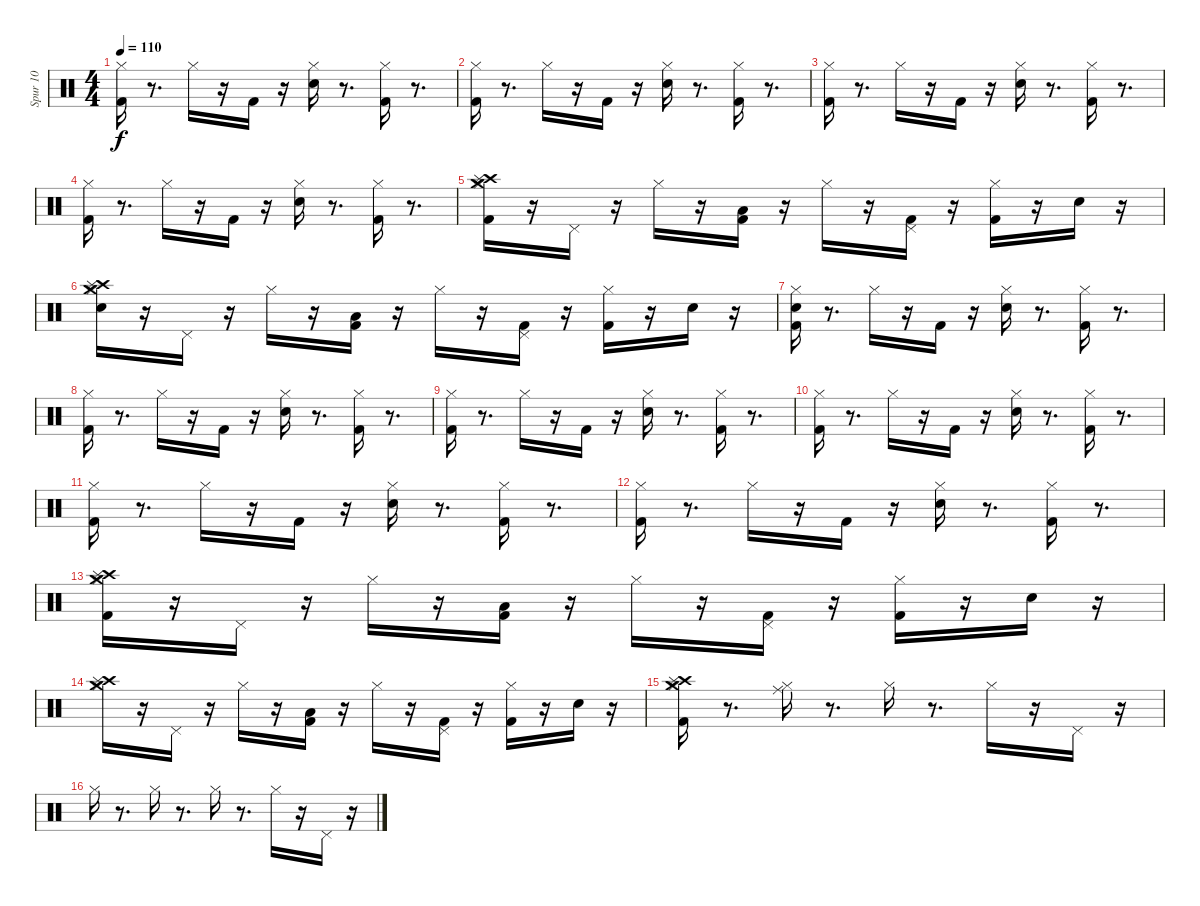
\track ("Spur 10" "Spur 10") {instrument percussion}
\staff {score}
\articulation defaults
\ts (4 4)
\tempo 110
\clef neutral
\ks c
("Hi-Hat (closed)" "Kick (hit) 2").16{dy f} r.8{d} "Hi-Hat (closed)".16 r.16 "Kick (hit) 2".16 r.16 ("Hi-Hat (closed)" "Snare (hit) 2").16 r.8{d} ("Hi-Hat (closed)" "Kick (hit) 2").16 r.8{d} |
("Hi-Hat (closed)" "Kick (hit) 2").16 r.8{d} "Hi-Hat (closed)".16 r.16 "Kick (hit) 2".16 r.16 ("Hi-Hat (closed)" "Snare (hit) 2").16 r.8{d} ("Hi-Hat (closed)" "Kick (hit) 2").16 r.8{d} |
("Hi-Hat (closed)" "Kick (hit) 2").16 r.8{d} "Hi-Hat (closed)".16 r.16 "Kick (hit) 2".16 r.16 ("Hi-Hat (closed)" "Snare (hit) 2").16 r.8{d} ("Hi-Hat (closed)" "Kick (hit) 2").16 r.8{d} |
("Hi-Hat (closed)" "Kick (hit) 2").16 r.8{d} "Hi-Hat (closed)".16 r.16 "Kick (hit) 2".16 r.16 ("Hi-Hat (closed)" "Snare (hit) 2").16 r.8{d} ("Hi-Hat (closed)" "Kick (hit) 2").16 r.8{d} |
("Hi-Hat (closed)" "Kick (hit) 2" "Crash high (hit)" "Splash (hit)" "Crash medium (hit)").16 r.16 "Pedal Hi-Hat (hit)".16 r.16 "Hi-Hat (closed)".16 r.16 ("Kick (hit) 2" "Low Floor Tom (hit)").16 r.16 "Hi-Hat (closed)".16 r.16 ("Kick (hit) 2" "Pedal Hi-Hat (hit)").16 r.16 ("Kick (hit) 2" "Hi-Hat (closed)").16 r.16 "Snare (hit) 2".16 r.16 |
("Snare (hit) 2" "Hi-Hat (closed)" "Crash high (hit)" "Splash (hit)" "Crash medium (hit)").16 r.16 "Pedal Hi-Hat (hit)".16 r.16 "Hi-Hat (closed)".16 r.16 ("Kick (hit) 2" "Low Floor Tom (hit)").16 r.16 "Hi-Hat (closed)".16 r.16 ("Kick (hit) 2" "Pedal Hi-Hat (hit)").16 r.16 ("Kick (hit) 2" "Hi-Hat (closed)").16 r.16 "Snare (hit) 2".16 r.16 |
("Kick (hit) 2" "Snare (hit) 2" "Hi-Hat (closed)").16 r.8{d} "Hi-Hat (closed)".16 r.16 "Kick (hit) 2".16 r.16 ("Snare (hit) 2" "Hi-Hat (closed)").16 r.8{d} ("Kick (hit) 2" "Hi-Hat (closed)").16 r.8{d} |
("Kick (hit) 2" "Hi-Hat (closed)").16 r.8{d} "Hi-Hat (closed)".16 r.16 "Kick (hit) 2".16 r.16 ("Snare (hit) 2" "Hi-Hat (closed)").16 r.8{d} ("Kick (hit) 2" "Hi-Hat (closed)").16 r.8{d} |
("Kick (hit) 2" "Hi-Hat (closed)").16 r.8{d} "Hi-Hat (closed)".16 r.16 "Kick (hit) 2".16 r.16 ("Snare (hit) 2" "Hi-Hat (closed)").16 r.8{d} ("Kick (hit) 2" "Hi-Hat (closed)").16 r.8{d} |
("Kick (hit) 2" "Hi-Hat (closed)").16 r.8{d} "Hi-Hat (closed)".16 r.16 "Kick (hit) 2".16 r.16 ("Snare (hit) 2" "Hi-Hat (closed)").16 r.8{d} ("Kick (hit) 2" "Hi-Hat (closed)").16 r.8{d} |
("Kick (hit) 2" "Hi-Hat (closed)").16 r.8{d} "Hi-Hat (closed)".16 r.16 "Kick (hit) 2".16 r.16 ("Snare (hit) 2" "Hi-Hat (closed)").16 r.8{d} ("Kick (hit) 2" "Hi-Hat (closed)").16 r.8{d} |
("Kick (hit) 2" "Hi-Hat (closed)").16 r.8{d} "Hi-Hat (closed)".16 r.16 "Kick (hit) 2".16 r.16 ("Snare (hit) 2" "Hi-Hat (closed)").16 r.8{d} ("Kick (hit) 2" "Hi-Hat (closed)").16 r.8{d} |
("Hi-Hat (closed)" "Kick (hit) 2" "Crash high (hit)" "Splash (hit)" "Crash medium (hit)").16 r.16 "Pedal Hi-Hat (hit)".16 r.16 "Hi-Hat (closed)".16 r.16 ("Kick (hit) 2" "Low Floor Tom (hit)").16 r.16 "Hi-Hat (closed)".16 r.16 ("Kick (hit) 2" "Pedal Hi-Hat (hit)").16 r.16 ("Kick (hit) 2" "Hi-Hat (closed)").16 r.16 "Snare (hit) 2".16 r.16 |
("Hi-Hat (closed)" "Crash high (hit)" "Splash (hit)" "Crash medium (hit)").16 r.16 "Pedal Hi-Hat (hit)".16 r.16 "Hi-Hat (closed)".16 r.16 ("Kick (hit) 2" "Low Floor Tom (hit)").16 r.16 "Hi-Hat (closed)".16 r.16 ("Kick (hit) 2" "Pedal Hi-Hat (hit)").16 r.16 ("Kick (hit) 2" "Hi-Hat (closed)").16 r.16 "Snare (hit) 2".16 r.16 |
("Kick (hit) 2" "Hi-Hat (closed)" "Crash high (hit)" "Splash (hit)" "Crash medium (hit)").16 r.8{d} ("Ride (middle)" "Hi-Hat (closed)").16 r.8{d} "Hi-Hat (closed)".16 r.8{d} "Hi-Hat (closed)".16 r.16 "Pedal Hi-Hat (hit)".16 r.16 |
"Hi-Hat (closed)".16 r.8{d} "Hi-Hat (closed)".16 r.8{d} "Hi-Hat (closed)".16 r.8{d} "Hi-Hat (closed)".16 r.16 "Pedal Hi-Hat (hit)".16 r.16
